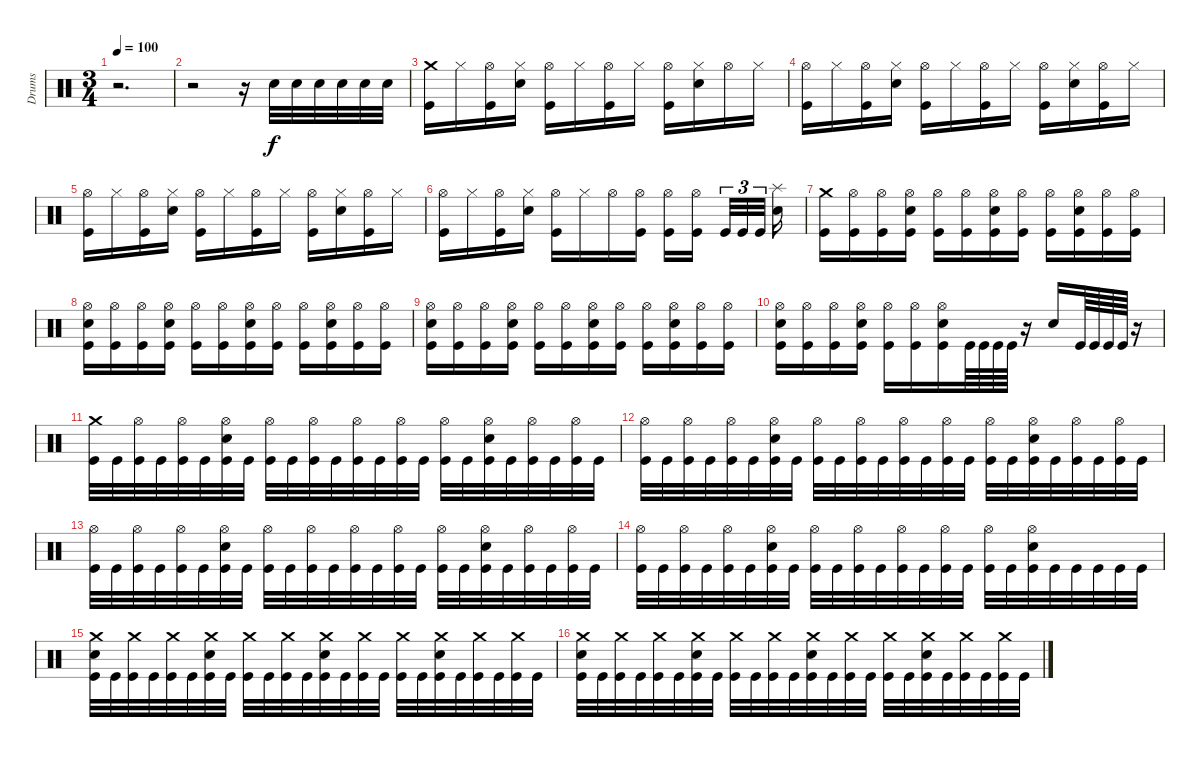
\track ("Drums" "Drums") {instrument percussion}
\staff {score}
\articulation defaults
\ts (3 4)
\tempo 100
\clef neutral
\ks c
r.2{d dy f} |
r.2 r.16 "Electric Snare (hit)".32 "Electric Snare (hit)".32 "Electric Snare (hit)".32 "Electric Snare (hit)".32 "Electric Snare (hit)".32 "Electric Snare (hit)".32 |
("Kick (hit)" "Crash medium (hit)").16 "Hi-Hat (closed)".16 ("Kick (hit)" "Hi-Hat (open)").16 ("Hi-Hat (closed)" "Electric Snare (hit)").16 ("Kick (hit)" "Hi-Hat (open)").16 "Hi-Hat (closed)".16 ("Kick (hit)" "Hi-Hat (open)").16 "Hi-Hat (closed)".16 ("Kick (hit)" "Hi-Hat (open)").16 ("Hi-Hat (closed)" "Electric Snare (hit)").16 "Hi-Hat (open)".16 "Hi-Hat (closed)".16 |
("Kick (hit)" "Hi-Hat (open)").16 "Hi-Hat (closed)".16 ("Kick (hit)" "Hi-Hat (open)").16 ("Hi-Hat (closed)" "Electric Snare (hit)").16 ("Kick (hit)" "Hi-Hat (open)").16 "Hi-Hat (closed)".16 ("Kick (hit)" "Hi-Hat (open)").16 "Hi-Hat (closed)".16 ("Kick (hit)" "Hi-Hat (open)").16 ("Hi-Hat (closed)" "Electric Snare (hit)").16 ("Kick (hit)" "Hi-Hat (open)").16 "Hi-Hat (closed)".16 |
("Kick (hit)" "Hi-Hat (open)").16 "Hi-Hat (closed)".16 ("Kick (hit)" "Hi-Hat (open)").16 ("Hi-Hat (closed)" "Electric Snare (hit)").16 ("Kick (hit)" "Hi-Hat (open)").16 "Hi-Hat (closed)".16 ("Kick (hit)" "Hi-Hat (open)").16 "Hi-Hat (closed)".16 ("Kick (hit)" "Hi-Hat (open)").16 ("Hi-Hat (closed)" "Electric Snare (hit)").16 ("Kick (hit)" "Hi-Hat (open)").16 "Hi-Hat (closed)".16 |
("Kick (hit)" "Hi-Hat (open)").16 "Hi-Hat (closed)".16 ("Kick (hit)" "Hi-Hat (open)").16 ("Hi-Hat (closed)" "Electric Snare (hit)").16 ("Kick (hit)" "Hi-Hat (open)").16 "Hi-Hat (closed)".16 "Hi-Hat (open)".16 ("Kick (hit)" "Hi-Hat (open)").16 ("Kick (hit)" "Hi-Hat (open)").16 ("Kick (hit)" "Hi-Hat (open)").16 "Kick (hit)".32{tu (3 2)} "Kick (hit)".32{tu (3 2)} "Kick (hit)".32{tu (3 2)} ("Electric Snare (hit)" "Splash (hit)").16 |
("Kick (hit)" "Crash medium (hit)").16 ("Kick (hit)" "Hi-Hat (open)").16 ("Kick (hit)" "Hi-Hat (open)").16 ("Kick (hit)" "Hi-Hat (open)" "Electric Snare (hit)").16 ("Kick (hit)" "Hi-Hat (open)").16 ("Kick (hit)" "Hi-Hat (open)").16 ("Kick (hit)" "Hi-Hat (open)" "Electric Snare (hit)").16 ("Kick (hit)" "Hi-Hat (open)").16 ("Kick (hit)" "Hi-Hat (open)").16 ("Kick (hit)" "Hi-Hat (open)" "Electric Snare (hit)").16 ("Kick (hit)" "Hi-Hat (open)").16 ("Kick (hit)" "Hi-Hat (open)").16 |
("Kick (hit)" "Hi-Hat (open)" "Electric Snare (hit)").16 ("Kick (hit)" "Hi-Hat (open)").16 ("Kick (hit)" "Hi-Hat (open)").16 ("Kick (hit)" "Hi-Hat (open)" "Electric Snare (hit)").16 ("Kick (hit)" "Hi-Hat (open)").16 ("Kick (hit)" "Hi-Hat (open)").16 ("Kick (hit)" "Hi-Hat (open)" "Electric Snare (hit)").16 ("Kick (hit)" "Hi-Hat (open)").16 ("Kick (hit)" "Hi-Hat (open)").16 ("Kick (hit)" "Hi-Hat (open)" "Electric Snare (hit)").16 ("Kick (hit)" "Hi-Hat (open)").16 ("Kick (hit)" "Hi-Hat (open)").16 |
("Kick (hit)" "Hi-Hat (open)" "Electric Snare (hit)").16 ("Kick (hit)" "Hi-Hat (open)").16 ("Kick (hit)" "Hi-Hat (open)").16 ("Kick (hit)" "Hi-Hat (open)" "Electric Snare (hit)").16 ("Kick (hit)" "Hi-Hat (open)").16 ("Kick (hit)" "Hi-Hat (open)").16 ("Kick (hit)" "Hi-Hat (open)" "Electric Snare (hit)").16 ("Kick (hit)" "Hi-Hat (open)").16 ("Kick (hit)" "Hi-Hat (open)").16 ("Kick (hit)" "Hi-Hat (open)" "Electric Snare (hit)").16 ("Kick (hit)" "Hi-Hat (open)").16 ("Kick (hit)" "Hi-Hat (open)").16 |
("Kick (hit)" "Hi-Hat (open)" "Electric Snare (hit)").16 ("Kick (hit)" "Hi-Hat (open)").16 ("Kick (hit)" "Hi-Hat (open)").16 ("Kick (hit)" "Hi-Hat (open)" "Electric Snare (hit)").16 ("Kick (hit)" "Hi-Hat (open)").16 ("Kick (hit)" "Hi-Hat (open)").16 ("Kick (hit)" "Hi-Hat (open)" "Electric Snare (hit)").16 "Kick (hit)".64 "Kick (hit)".64 "Kick (hit)".64 "Kick (hit)".64 r.16 "Electric Snare (hit)".16 "Kick (hit)".64 "Kick (hit)".64 "Kick (hit)".64 "Kick (hit)".64 r.16 |
("Kick (hit)" "Crash medium (hit)").32 "Kick (hit)".32 ("Kick (hit)" "Hi-Hat (open)").32 "Kick (hit)".32 ("Kick (hit)" "Hi-Hat (open)").32 "Kick (hit)".32 ("Kick (hit)" "Hi-Hat (open)" "Electric Snare (hit)").32 "Kick (hit)".32 ("Kick (hit)" "Hi-Hat (open)").32 "Kick (hit)".32 ("Kick (hit)" "Hi-Hat (open)").32 "Kick (hit)".32 ("Kick (hit)" "Hi-Hat (open)").32 "Kick (hit)".32 ("Kick (hit)" "Hi-Hat (open)").32 "Kick (hit)".32 ("Kick (hit)" "Hi-Hat (open)").32 "Kick (hit)".32 ("Kick (hit)" "Hi-Hat (open)" "Electric Snare (hit)").32 "Kick (hit)".32 ("Kick (hit)" "Hi-Hat (open)").32 "Kick (hit)".32 ("Kick (hit)" "Hi-Hat (open)").32 "Kick (hit)".32 |
("Kick (hit)" "Hi-Hat (open)").32 "Kick (hit)".32 ("Kick (hit)" "Hi-Hat (open)").32 "Kick (hit)".32 ("Kick (hit)" "Hi-Hat (open)").32 "Kick (hit)".32 ("Kick (hit)" "Hi-Hat (open)" "Electric Snare (hit)").32 "Kick (hit)".32 ("Kick (hit)" "Hi-Hat (open)").32 "Kick (hit)".32 ("Kick (hit)" "Hi-Hat (open)").32 "Kick (hit)".32 ("Kick (hit)" "Hi-Hat (open)").32 "Kick (hit)".32 ("Kick (hit)" "Hi-Hat (open)").32 "Kick (hit)".32 ("Kick (hit)" "Hi-Hat (open)").32 "Kick (hit)".32 ("Kick (hit)" "Hi-Hat (open)" "Electric Snare (hit)").32 "Kick (hit)".32 ("Kick (hit)" "Hi-Hat (open)").32 "Kick (hit)".32 ("Kick (hit)" "Hi-Hat (open)").32 "Kick (hit)".32 |
("Kick (hit)" "Hi-Hat (open)").32 "Kick (hit)".32 ("Kick (hit)" "Hi-Hat (open)").32 "Kick (hit)".32 ("Kick (hit)" "Hi-Hat (open)").32 "Kick (hit)".32 ("Kick (hit)" "Hi-Hat (open)" "Electric Snare (hit)").32 "Kick (hit)".32 ("Kick (hit)" "Hi-Hat (open)").32 "Kick (hit)".32 ("Kick (hit)" "Hi-Hat (open)").32 "Kick (hit)".32 ("Kick (hit)" "Hi-Hat (open)").32 "Kick (hit)".32 ("Kick (hit)" "Hi-Hat (open)").32 "Kick (hit)".32 ("Kick (hit)" "Hi-Hat (open)").32 "Kick (hit)".32 ("Kick (hit)" "Hi-Hat (open)" "Electric Snare (hit)").32 "Kick (hit)".32 ("Kick (hit)" "Hi-Hat (open)").32 "Kick (hit)".32 ("Kick (hit)" "Hi-Hat (open)").32 "Kick (hit)".32 |
("Kick (hit)" "Hi-Hat (open)").32 "Kick (hit)".32 ("Kick (hit)" "Hi-Hat (open)").32 "Kick (hit)".32 ("Kick (hit)" "Hi-Hat (open)").32 "Kick (hit)".32 ("Kick (hit)" "Hi-Hat (open)" "Electric Snare (hit)").32 "Kick (hit)".32 ("Kick (hit)" "Hi-Hat (open)").32 "Kick (hit)".32 ("Kick (hit)" "Hi-Hat (open)").32 "Kick (hit)".32 ("Kick (hit)" "Hi-Hat (open)").32 "Kick (hit)".32 ("Kick (hit)" "Hi-Hat (open)").32 "Kick (hit)".32 ("Kick (hit)" "Hi-Hat (open)").32 "Kick (hit)".32 ("Kick (hit)" "Hi-Hat (open)" "Electric Snare (hit)").32 "Kick (hit)".32 "Kick (hit)".32 "Kick (hit)".32 "Kick (hit)".32 "Kick (hit)".32 |
("Kick (hit)" "Electric Snare (hit)" "Crash medium (hit)").32 "Kick (hit)".32 ("Kick (hit)" "Crash medium (hit)").32 "Kick (hit)".32 ("Kick (hit)" "Crash medium (hit)").32 "Kick (hit)".32 ("Kick (hit)" "Electric Snare (hit)" "Crash medium (hit)").32 "Kick (hit)".32 ("Kick (hit)" "Crash medium (hit)").32 "Kick (hit)".32 ("Kick (hit)" "Crash medium (hit)").32 "Kick (hit)".32 ("Kick (hit)" "Electric Snare (hit)" "Crash medium (hit)").32 "Kick (hit)".32 ("Kick (hit)" "Crash medium (hit)").32 "Kick (hit)".32 ("Kick (hit)" "Crash medium (hit)").32 "Kick (hit)".32 ("Kick (hit)" "Electric Snare (hit)" "Crash medium (hit)").32 "Kick (hit)".32 ("Kick (hit)" "Crash medium (hit)").32 "Kick (hit)".32 ("Kick (hit)" "Crash medium (hit)").32 "Kick (hit)".32 |
("Kick (hit)" "Electric Snare (hit)" "Crash medium (hit)").32 "Kick (hit)".32 ("Kick (hit)" "Crash medium (hit)").32 "Kick (hit)".32 ("Kick (hit)" "Crash medium (hit)").32 "Kick (hit)".32 ("Kick (hit)" "Electric Snare (hit)" "Crash medium (hit)").32 "Kick (hit)".32 ("Kick (hit)" "Crash medium (hit)").32 "Kick (hit)".32 ("Kick (hit)" "Crash medium (hit)").32 "Kick (hit)".32 ("Kick (hit)" "Electric Snare (hit)" "Crash medium (hit)").32 "Kick (hit)".32 ("Kick (hit)" "Crash medium (hit)").32 "Kick (hit)".32 ("Kick (hit)" "Crash medium (hit)").32 "Kick (hit)".32 ("Kick (hit)" "Electric Snare (hit)" "Crash medium (hit)").32 "Kick (hit)".32 ("Kick (hit)" "Crash medium (hit)").32 "Kick (hit)".32 ("Kick (hit)" "Crash medium (hit)").32 "Kick (hit)".32
